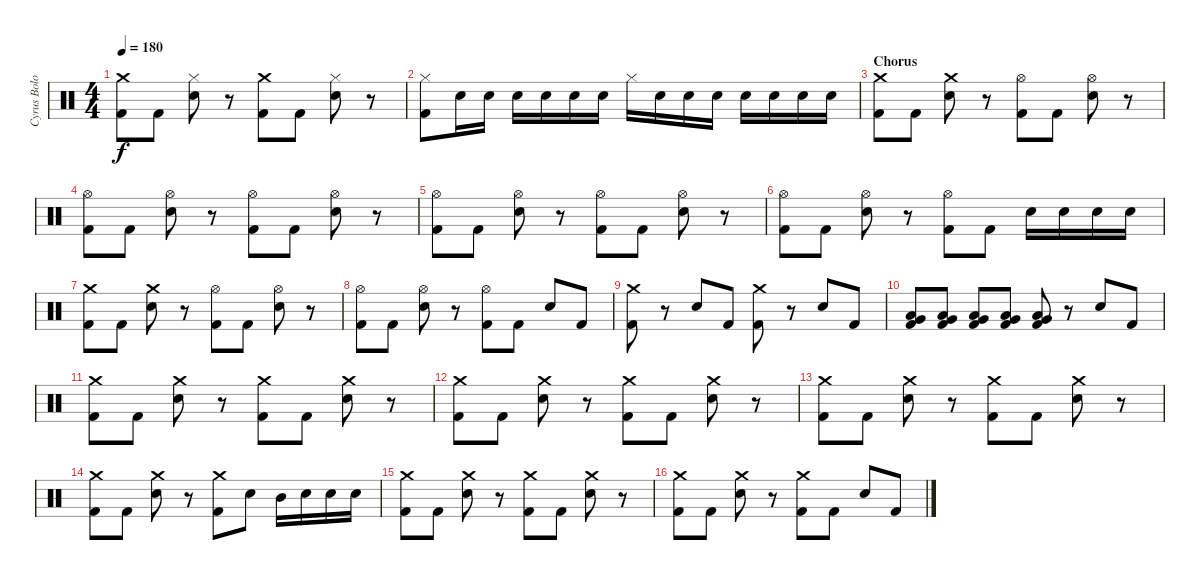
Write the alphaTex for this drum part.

\track ("Cyrus Bolooki - Drums" "Cyrus Bolo") {instrument percussion}
\staff {score}
\articulation defaults
\ts (4 4)
\tempo 180
\clef neutral
\ks c
("Crash medium (hit)" "Kick (hit) 2").8{dy f} "Kick (hit) 2".8 ("Hi-Hat (closed)" "Electric Snare (hit)").8 r.8 ("Crash medium (hit)" "Kick (hit) 2").8 "Kick (hit) 2".8 ("Hi-Hat (closed)" "Electric Snare (hit)").8 r.8 |
("Hi-Hat (closed)" "Kick (hit) 2").8 "Electric Snare (hit)".16 "Electric Snare (hit)".16 "Electric Snare (hit)".16 "Electric Snare (hit)".16 "Electric Snare (hit)".16 "Electric Snare (hit)".16 "Hi-Hat (closed)".16 "Electric Snare (hit)".16 "Electric Snare (hit)".16 "Electric Snare (hit)".16 "Electric Snare (hit)".16 "Electric Snare (hit)".16 "Electric Snare (hit)".16 "Electric Snare (hit)".16 |
\section ("" "Chorus")
("Crash medium (hit)" "Kick (hit) 2").8 "Kick (hit) 2".8 ("Crash medium (hit)" "Electric Snare (hit)").8 r.8 ("Hi-Hat (open)" "Kick (hit) 2").8 "Kick (hit) 2".8 ("Hi-Hat (open)" "Electric Snare (hit)").8 r.8 |
("Hi-Hat (open)" "Kick (hit) 2").8 "Kick (hit) 2".8 ("Hi-Hat (open)" "Electric Snare (hit)").8 r.8 ("Hi-Hat (open)" "Kick (hit) 2").8 "Kick (hit) 2".8 ("Hi-Hat (open)" "Electric Snare (hit)").8 r.8 |
("Hi-Hat (open)" "Kick (hit) 2").8 "Kick (hit) 2".8 ("Hi-Hat (open)" "Electric Snare (hit)").8 r.8 ("Hi-Hat (open)" "Kick (hit) 2").8 "Kick (hit) 2".8 ("Hi-Hat (open)" "Electric Snare (hit)").8 r.8 |
("Hi-Hat (open)" "Kick (hit) 2").8 "Kick (hit) 2".8 ("Hi-Hat (open)" "Electric Snare (hit)").8 r.8 ("Hi-Hat (open)" "Kick (hit) 2").8 "Kick (hit) 2".8 "Electric Snare (hit)".16 "Electric Snare (hit)".16 "Electric Snare (hit)".16 "Electric Snare (hit)".16 |
("Crash medium (hit)" "Kick (hit) 2").8 "Kick (hit) 2".8 ("Crash medium (hit)" "Electric Snare (hit)").8 r.8 ("Hi-Hat (open)" "Kick (hit) 2").8 "Kick (hit) 2".8 ("Hi-Hat (open)" "Electric Snare (hit)").8 r.8 |
("Hi-Hat (open)" "Kick (hit) 2").8 "Kick (hit) 2".8 ("Hi-Hat (open)" "Electric Snare (hit)").8 r.8 ("Hi-Hat (open)" "Kick (hit) 2").8 "Kick (hit) 2".8 "Electric Snare (hit)".8 "Kick (hit) 2".8 |
("Crash medium (hit)" "Kick (hit) 2").8 r.8 "Electric Snare (hit)".8 "Kick (hit) 2".8 ("Crash medium (hit)" "Kick (hit) 2").8 r.8 "Electric Snare (hit)".8 "Kick (hit) 2".8 |
("Very Low Tom (hit)" "Low Tom (hit)" "Kick (hit) 2").8 ("Very Low Tom (hit)" "Low Tom (hit)" "Kick (hit) 2").8 ("Very Low Tom (hit)" "Low Tom (hit)" "Kick (hit) 2").8 ("Very Low Tom (hit)" "Low Tom (hit)" "Kick (hit) 2").8 ("Very Low Tom (hit)" "Low Tom (hit)" "Kick (hit) 2").8 r.8 "Electric Snare (hit)".8 "Kick (hit) 2".8 |
("Crash medium (hit)" "Kick (hit) 2").8 "Kick (hit) 2".8 ("Crash medium (hit)" "Electric Snare (hit)").8 r.8 ("Crash medium (hit)" "Kick (hit) 2").8 "Kick (hit) 2".8 ("Crash medium (hit)" "Electric Snare (hit)").8 r.8 |
("Crash medium (hit)" "Kick (hit) 2").8 "Kick (hit) 2".8 ("Crash medium (hit)" "Electric Snare (hit)").8 r.8 ("Crash medium (hit)" "Kick (hit) 2").8 "Kick (hit) 2".8 ("Crash medium (hit)" "Electric Snare (hit)").8 r.8 |
("Crash medium (hit)" "Kick (hit) 2").8 "Kick (hit) 2".8 ("Crash medium (hit)" "Electric Snare (hit)").8 r.8 ("Crash medium (hit)" "Kick (hit) 2").8 "Kick (hit) 2".8 ("Crash medium (hit)" "Electric Snare (hit)").8 r.8 |
("Crash medium (hit)" "Kick (hit) 2").8 "Kick (hit) 2".8 ("Crash medium (hit)" "Electric Snare (hit)").8 r.8 ("Crash medium (hit)" "Kick (hit) 2").8 "Electric Snare (hit)".8 "Mid Tom (hit)".16 "Electric Snare (hit)".16 "Electric Snare (hit)".16 "Electric Snare (hit)".16 |
("Crash medium (hit)" "Kick (hit) 2").8 "Kick (hit) 2".8 ("Crash medium (hit)" "Electric Snare (hit)").8 r.8 ("Crash medium (hit)" "Kick (hit) 2").8 "Kick (hit) 2".8 ("Crash medium (hit)" "Electric Snare (hit)").8 r.8 |
("Crash medium (hit)" "Kick (hit) 2").8 "Kick (hit) 2".8 ("Crash medium (hit)" "Electric Snare (hit)").8 r.8 ("Crash medium (hit)" "Kick (hit) 2").8 "Kick (hit) 2".8 "Electric Snare (hit)".8 "Kick (hit) 2".8
